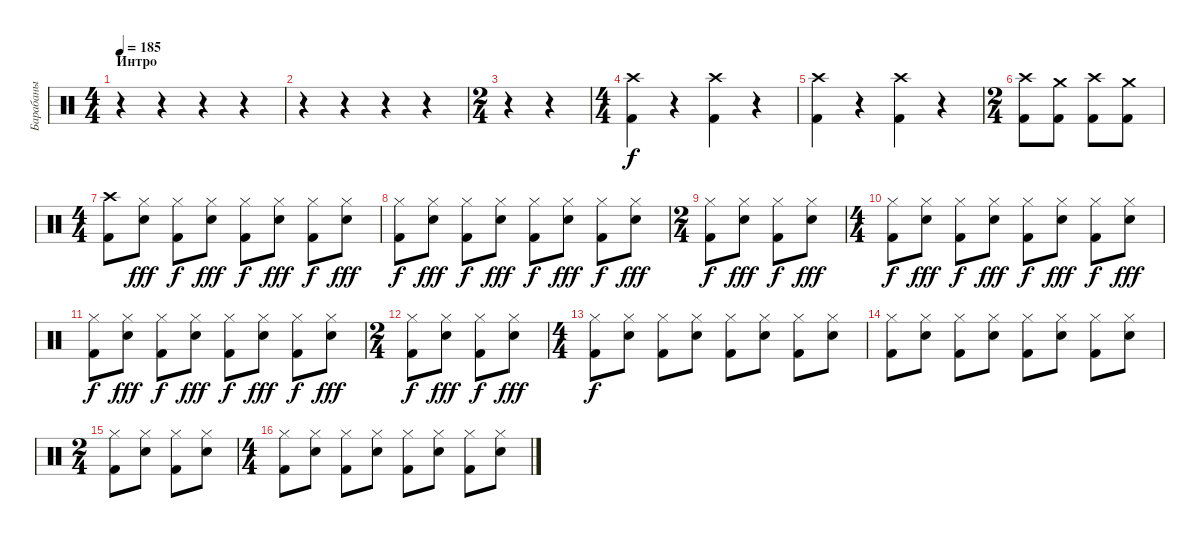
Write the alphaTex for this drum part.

\track ("Барабаны" "Барабаны") {instrument percussion}
\staff {score}
\articulation defaults
\ts (4 4)
\section ("" "Интро")
\tempo 185
\clef neutral
\ks c
r.4{dy f} r.4 r.4 r.4 |
r.4 r.4 r.4 r.4 |
\ts (2 4)
r.4 r.4 |
\ts (4 4)
("Crash high (hit)" "Kick (hit) 2").4 r.4 ("Crash high (hit)" "Kick (hit) 2").4 r.4 |
("Crash high (hit)" "Kick (hit) 2").4 r.4 ("Crash high (hit)" "Kick (hit) 2").4 r.4 |
\ts (2 4)
("Crash high (hit)" "Kick (hit) 2").8 ("Crash medium (hit)" "Kick (hit) 2").8 ("Crash high (hit)" "Kick (hit) 2").8 ("Crash medium (hit)" "Kick (hit) 2").8 |
\ts (4 4)
("Crash high (hit)" "Kick (hit) 2").8 ("Hi-Hat (closed)" "Snare (hit) 2").8{dy fff} ("Hi-Hat (closed)" "Kick (hit) 2").8{dy f} ("Hi-Hat (closed)" "Snare (hit) 2").8{dy fff} ("Hi-Hat (closed)" "Kick (hit) 2").8{dy f} ("Hi-Hat (closed)" "Snare (hit) 2").8{dy fff} ("Hi-Hat (closed)" "Kick (hit) 2").8{dy f} ("Hi-Hat (closed)" "Snare (hit) 2").8{dy fff} |
("Hi-Hat (closed)" "Kick (hit) 2").8{dy f} ("Hi-Hat (closed)" "Snare (hit) 2").8{dy fff} ("Hi-Hat (closed)" "Kick (hit) 2").8{dy f} ("Hi-Hat (closed)" "Snare (hit) 2").8{dy fff} ("Hi-Hat (closed)" "Kick (hit) 2").8{dy f} ("Hi-Hat (closed)" "Snare (hit) 2").8{dy fff} ("Hi-Hat (closed)" "Kick (hit) 2").8{dy f} ("Hi-Hat (closed)" "Snare (hit) 2").8{dy fff} |
\ts (2 4)
("Hi-Hat (closed)" "Kick (hit) 2").8{dy f} ("Hi-Hat (closed)" "Snare (hit) 2").8{dy fff} ("Hi-Hat (closed)" "Kick (hit) 2").8{dy f} ("Hi-Hat (closed)" "Snare (hit) 2").8{dy fff} |
\ts (4 4)
("Hi-Hat (closed)" "Kick (hit) 2").8{dy f} ("Hi-Hat (closed)" "Snare (hit) 2").8{dy fff} ("Hi-Hat (closed)" "Kick (hit) 2").8{dy f} ("Hi-Hat (closed)" "Snare (hit) 2").8{dy fff} ("Hi-Hat (closed)" "Kick (hit) 2").8{dy f} ("Hi-Hat (closed)" "Snare (hit) 2").8{dy fff} ("Hi-Hat (closed)" "Kick (hit) 2").8{dy f} ("Hi-Hat (closed)" "Snare (hit) 2").8{dy fff} |
("Hi-Hat (closed)" "Kick (hit) 2").8{dy f} ("Hi-Hat (closed)" "Snare (hit) 2").8{dy fff} ("Hi-Hat (closed)" "Kick (hit) 2").8{dy f} ("Hi-Hat (closed)" "Snare (hit) 2").8{dy fff} ("Hi-Hat (closed)" "Kick (hit) 2").8{dy f} ("Hi-Hat (closed)" "Snare (hit) 2").8{dy fff} ("Hi-Hat (closed)" "Kick (hit) 2").8{dy f} ("Hi-Hat (closed)" "Snare (hit) 2").8{dy fff} |
\ts (2 4)
("Hi-Hat (closed)" "Kick (hit) 2").8{dy f} ("Hi-Hat (closed)" "Snare (hit) 2").8{dy fff} ("Hi-Hat (closed)" "Kick (hit) 2").8{dy f} ("Hi-Hat (closed)" "Snare (hit) 2").8{dy fff} |
\ts (4 4)
("Hi-Hat (closed)" "Kick (hit) 2").8{dy f} ("Hi-Hat (closed)" "Snare (hit) 2").8 ("Hi-Hat (closed)" "Kick (hit) 2").8 ("Hi-Hat (closed)" "Snare (hit) 2").8 ("Hi-Hat (closed)" "Kick (hit) 2").8 ("Hi-Hat (closed)" "Snare (hit) 2").8 ("Hi-Hat (closed)" "Kick (hit) 2").8 ("Hi-Hat (closed)" "Snare (hit) 2").8 |
("Hi-Hat (closed)" "Kick (hit) 2").8 ("Hi-Hat (closed)" "Snare (hit) 2").8 ("Hi-Hat (closed)" "Kick (hit) 2").8 ("Hi-Hat (closed)" "Snare (hit) 2").8 ("Hi-Hat (closed)" "Kick (hit) 2").8 ("Hi-Hat (closed)" "Snare (hit) 2").8 ("Hi-Hat (closed)" "Kick (hit) 2").8 ("Hi-Hat (closed)" "Snare (hit) 2").8 |
\ts (2 4)
("Hi-Hat (closed)" "Kick (hit) 2").8 ("Hi-Hat (closed)" "Snare (hit) 2").8 ("Hi-Hat (closed)" "Kick (hit) 2").8 ("Hi-Hat (closed)" "Snare (hit) 2").8 |
\ts (4 4)
("Hi-Hat (closed)" "Kick (hit) 2").8 ("Hi-Hat (closed)" "Snare (hit) 2").8 ("Hi-Hat (closed)" "Kick (hit) 2").8 ("Hi-Hat (closed)" "Snare (hit) 2").8 ("Hi-Hat (closed)" "Kick (hit) 2").8 ("Hi-Hat (closed)" "Snare (hit) 2").8 ("Hi-Hat (closed)" "Kick (hit) 2").8 ("Hi-Hat (closed)" "Snare (hit) 2").8
